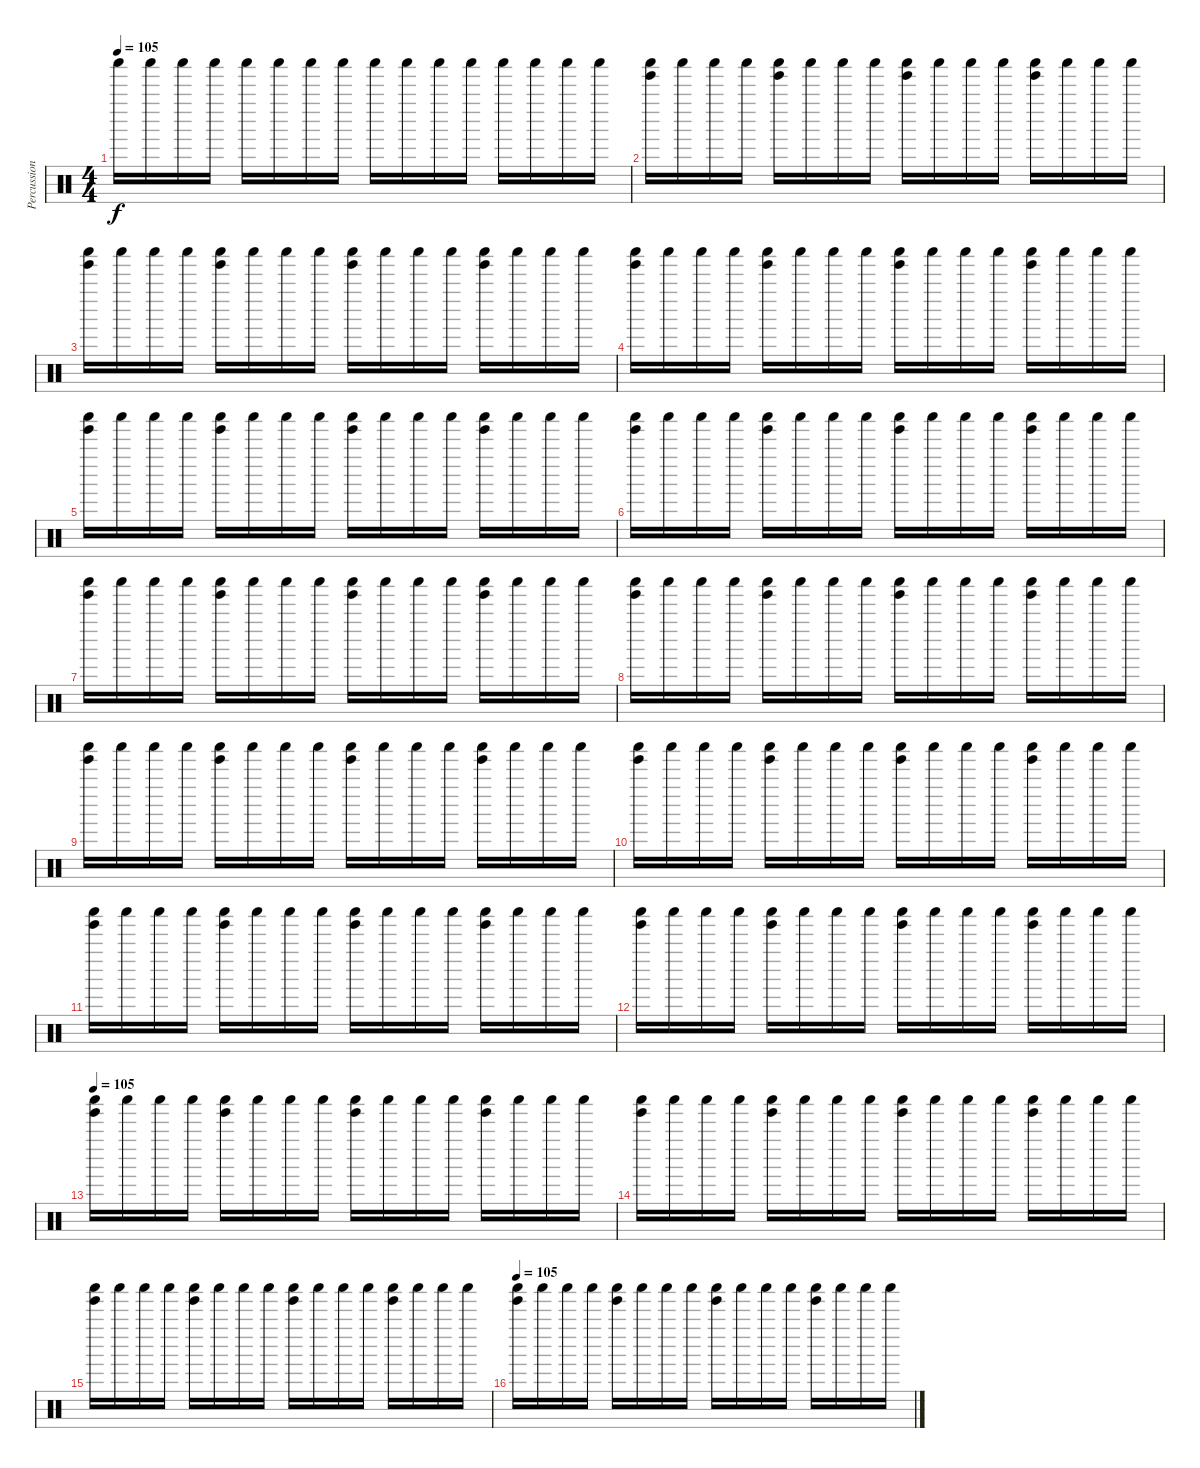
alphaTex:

\track ("Percussion" "Percussion") {instrument percussion}
\staff {score}
\articulation defaults
\ts (4 4)
\tempo 105
\clef neutral
\ks c "Shaker (hit)".16{dy f} "Shaker (hit)".16 "Shaker (hit)".16 "Shaker (hit)".16 "Shaker (hit)".16 "Shaker (hit)".16 "Shaker (hit)".16 "Shaker (hit)".16 "Shaker (hit)".16 "Shaker (hit)".16 "Shaker (hit)".16 "Shaker (hit)".16 "Shaker (hit)".16 "Shaker (hit)".16 "Shaker (hit)".16 "Shaker (hit)".16
|
("Shaker (hit)" "Tinkle Bell (hit)").16 "Shaker (hit)".16 "Shaker (hit)".16 "Shaker (hit)".16 ("Shaker (hit)" "Tinkle Bell (hit)").16 "Shaker (hit)".16 "Shaker (hit)".16 "Shaker (hit)".16 ("Shaker (hit)" "Tinkle Bell (hit)").16 "Shaker (hit)".16 "Shaker (hit)".16 "Shaker (hit)".16 ("Shaker (hit)" "Tinkle Bell (hit)").16 "Shaker (hit)".16 "Shaker (hit)".16 "Shaker (hit)".16 |
("Shaker (hit)" "Tinkle Bell (hit)").16 "Shaker (hit)".16 "Shaker (hit)".16 "Shaker (hit)".16 ("Shaker (hit)" "Tinkle Bell (hit)").16 "Shaker (hit)".16 "Shaker (hit)".16 "Shaker (hit)".16 ("Shaker (hit)" "Tinkle Bell (hit)").16 "Shaker (hit)".16 "Shaker (hit)".16 "Shaker (hit)".16 ("Shaker (hit)" "Tinkle Bell (hit)").16 "Shaker (hit)".16 "Shaker (hit)".16 "Shaker (hit)".16 |
("Shaker (hit)" "Tinkle Bell (hit)").16 "Shaker (hit)".16 "Shaker (hit)".16 "Shaker (hit)".16 ("Shaker (hit)" "Tinkle Bell (hit)").16 "Shaker (hit)".16 "Shaker (hit)".16 "Shaker (hit)".16 ("Shaker (hit)" "Tinkle Bell (hit)").16 "Shaker (hit)".16 "Shaker (hit)".16 "Shaker (hit)".16 ("Shaker (hit)" "Tinkle Bell (hit)").16 "Shaker (hit)".16 "Shaker (hit)".16 "Shaker (hit)".16 |
("Shaker (hit)" "Tinkle Bell (hit)").16 "Shaker (hit)".16 "Shaker (hit)".16 "Shaker (hit)".16 ("Shaker (hit)" "Tinkle Bell (hit)").16 "Shaker (hit)".16 "Shaker (hit)".16 "Shaker (hit)".16 ("Shaker (hit)" "Tinkle Bell (hit)").16 "Shaker (hit)".16 "Shaker (hit)".16 "Shaker (hit)".16 ("Shaker (hit)" "Tinkle Bell (hit)").16 "Shaker (hit)".16 "Shaker (hit)".16 "Shaker (hit)".16 |
\ks aminor
("Shaker (hit)" "Tinkle Bell (hit)").16 "Shaker (hit)".16 "Shaker (hit)".16 "Shaker (hit)".16 ("Shaker (hit)" "Tinkle Bell (hit)").16 "Shaker (hit)".16 "Shaker (hit)".16 "Shaker (hit)".16 ("Shaker (hit)" "Tinkle Bell (hit)").16 "Shaker (hit)".16 "Shaker (hit)".16 "Shaker (hit)".16 ("Shaker (hit)" "Tinkle Bell (hit)").16 "Shaker (hit)".16 "Shaker (hit)".16 "Shaker (hit)".16 |
("Shaker (hit)" "Tinkle Bell (hit)").16 "Shaker (hit)".16 "Shaker (hit)".16 "Shaker (hit)".16 ("Shaker (hit)" "Tinkle Bell (hit)").16 "Shaker (hit)".16 "Shaker (hit)".16 "Shaker (hit)".16 ("Shaker (hit)" "Tinkle Bell (hit)").16 "Shaker (hit)".16 "Shaker (hit)".16 "Shaker (hit)".16 ("Shaker (hit)" "Tinkle Bell (hit)").16 "Shaker (hit)".16 "Shaker (hit)".16 "Shaker (hit)".16 |
\ks c
("Shaker (hit)" "Tinkle Bell (hit)").16 "Shaker (hit)".16 "Shaker (hit)".16 "Shaker (hit)".16 ("Shaker (hit)" "Tinkle Bell (hit)").16 "Shaker (hit)".16 "Shaker (hit)".16 "Shaker (hit)".16 ("Shaker (hit)" "Tinkle Bell (hit)").16 "Shaker (hit)".16 "Shaker (hit)".16 "Shaker (hit)".16 ("Shaker (hit)" "Tinkle Bell (hit)").16 "Shaker (hit)".16 "Shaker (hit)".16 "Shaker (hit)".16 |
("Shaker (hit)" "Tinkle Bell (hit)").16 "Shaker (hit)".16 "Shaker (hit)".16 "Shaker (hit)".16 ("Shaker (hit)" "Tinkle Bell (hit)").16 "Shaker (hit)".16 "Shaker (hit)".16 "Shaker (hit)".16 ("Shaker (hit)" "Tinkle Bell (hit)").16 "Shaker (hit)".16 "Shaker (hit)".16 "Shaker (hit)".16 ("Shaker (hit)" "Tinkle Bell (hit)").16 "Shaker (hit)".16 "Shaker (hit)".16 "Shaker (hit)".16 |
\ks aminor
("Shaker (hit)" "Tinkle Bell (hit)").16 "Shaker (hit)".16 "Shaker (hit)".16 "Shaker (hit)".16 ("Shaker (hit)" "Tinkle Bell (hit)").16 "Shaker (hit)".16 "Shaker (hit)".16 "Shaker (hit)".16 ("Shaker (hit)" "Tinkle Bell (hit)").16 "Shaker (hit)".16 "Shaker (hit)".16 "Shaker (hit)".16 ("Shaker (hit)" "Tinkle Bell (hit)").16 "Shaker (hit)".16 "Shaker (hit)".16 "Shaker (hit)".16 |
("Shaker (hit)" "Tinkle Bell (hit)").16 "Shaker (hit)".16 "Shaker (hit)".16 "Shaker (hit)".16 ("Shaker (hit)" "Tinkle Bell (hit)").16 "Shaker (hit)".16 "Shaker (hit)".16 "Shaker (hit)".16 ("Shaker (hit)" "Tinkle Bell (hit)").16 "Shaker (hit)".16 "Shaker (hit)".16 "Shaker (hit)".16 ("Shaker (hit)" "Tinkle Bell (hit)").16 "Shaker (hit)".16 "Shaker (hit)".16 "Shaker (hit)".16 |
\ks c
("Shaker (hit)" "Tinkle Bell (hit)").16 "Shaker (hit)".16 "Shaker (hit)".16 "Shaker (hit)".16 ("Shaker (hit)" "Tinkle Bell (hit)").16 "Shaker (hit)".16 "Shaker (hit)".16 "Shaker (hit)".16 ("Shaker (hit)" "Tinkle Bell (hit)").16 "Shaker (hit)".16 "Shaker (hit)".16 "Shaker (hit)".16 ("Shaker (hit)" "Tinkle Bell (hit)").16 "Shaker (hit)".16 "Shaker (hit)".16 "Shaker (hit)".16 |
\tempo 105
("Shaker (hit)" "Tinkle Bell (hit)").16 "Shaker (hit)".16 "Shaker (hit)".16 "Shaker (hit)".16 ("Shaker (hit)" "Tinkle Bell (hit)").16 "Shaker (hit)".16 "Shaker (hit)".16 "Shaker (hit)".16 ("Shaker (hit)" "Tinkle Bell (hit)").16 "Shaker (hit)".16 "Shaker (hit)".16 "Shaker (hit)".16 ("Shaker (hit)" "Tinkle Bell (hit)").16 "Shaker (hit)".16 "Shaker (hit)".16 "Shaker (hit)".16 |
\ks aminor
("Shaker (hit)" "Tinkle Bell (hit)").16 "Shaker (hit)".16 "Shaker (hit)".16 "Shaker (hit)".16 ("Shaker (hit)" "Tinkle Bell (hit)").16 "Shaker (hit)".16 "Shaker (hit)".16 "Shaker (hit)".16 ("Shaker (hit)" "Tinkle Bell (hit)").16 "Shaker (hit)".16 "Shaker (hit)".16 "Shaker (hit)".16 ("Shaker (hit)" "Tinkle Bell (hit)").16 "Shaker (hit)".16 "Shaker (hit)".16 "Shaker (hit)".16 |
("Shaker (hit)" "Tinkle Bell (hit)").16 "Shaker (hit)".16 "Shaker (hit)".16 "Shaker (hit)".16 ("Shaker (hit)" "Tinkle Bell (hit)").16 "Shaker (hit)".16 "Shaker (hit)".16 "Shaker (hit)".16 ("Shaker (hit)" "Tinkle Bell (hit)").16 "Shaker (hit)".16 "Shaker (hit)".16 "Shaker (hit)".16 ("Shaker (hit)" "Tinkle Bell (hit)").16 "Shaker (hit)".16 "Shaker (hit)".16 "Shaker (hit)".16 |
\tempo 105
\ks c
("Shaker (hit)" "Tinkle Bell (hit)").16 "Shaker (hit)".16 "Shaker (hit)".16 "Shaker (hit)".16 ("Shaker (hit)" "Tinkle Bell (hit)").16 "Shaker (hit)".16 "Shaker (hit)".16 "Shaker (hit)".16 ("Shaker (hit)" "Tinkle Bell (hit)").16 "Shaker (hit)".16 "Shaker (hit)".16 "Shaker (hit)".16 ("Shaker (hit)" "Tinkle Bell (hit)").16 "Shaker (hit)".16 "Shaker (hit)".16 "Shaker (hit)".16
